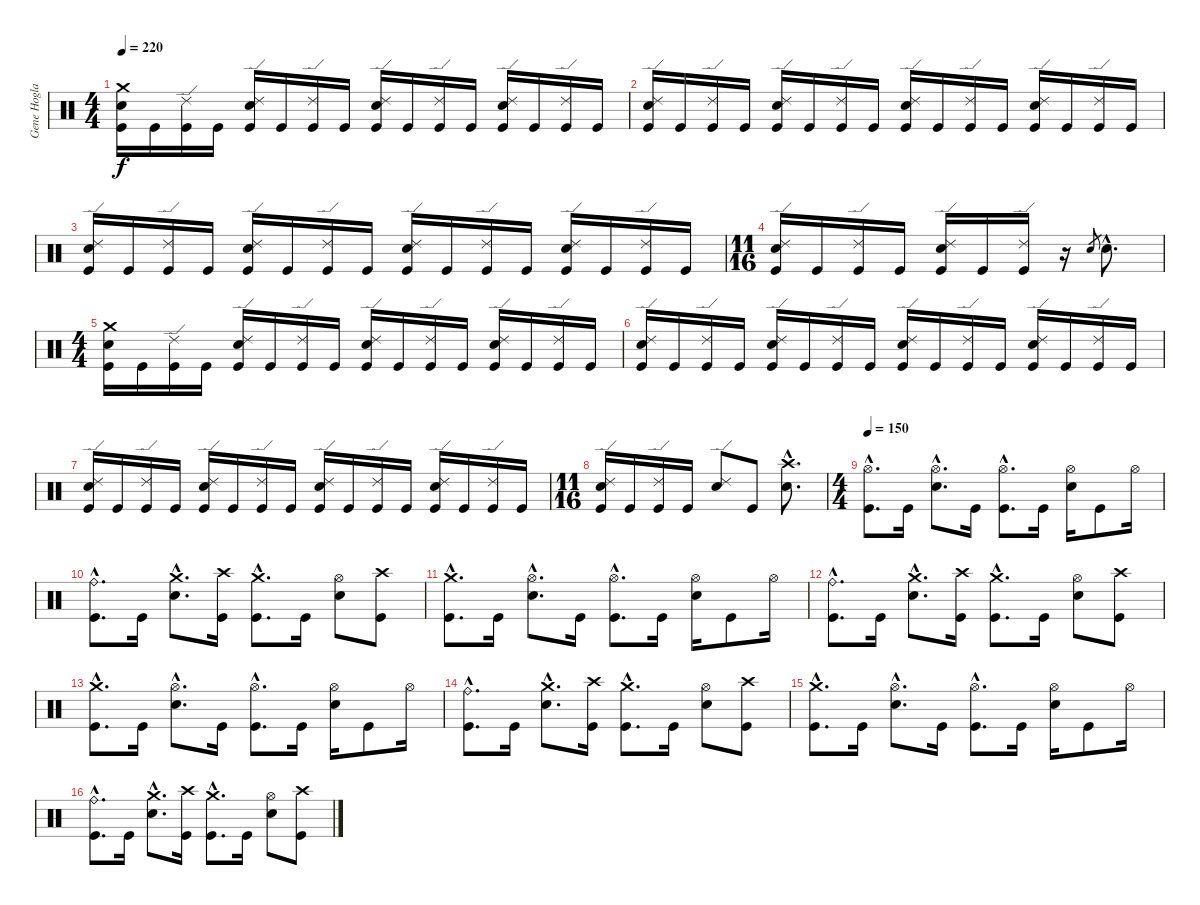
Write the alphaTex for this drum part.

\track ("Gene Hoglan" "Gene Hogla") {instrument percussion}
\staff {score}
\articulation defaults
\ts (4 4)
\tempo 220
\clef neutral
\ks c
("Crash medium (hit)" "Electric Snare (hit)" "Kick (hit)").16{dy f} "Kick (hit)".16 ("Ride (edge) 2" "Kick (hit)").16 "Kick (hit)".16 ("Ride (edge) 2" "Electric Snare (hit)" "Kick (hit)").16 "Kick (hit)".16 ("Ride (edge) 2" "Kick (hit)").16 "Kick (hit)".16 ("Ride (edge) 2" "Electric Snare (hit)" "Kick (hit)").16 "Kick (hit)".16 ("Ride (edge) 2" "Kick (hit)").16 "Kick (hit)".16 ("Ride (edge) 2" "Electric Snare (hit)" "Kick (hit)").16 "Kick (hit)".16 ("Ride (edge) 2" "Kick (hit)").16 "Kick (hit)".16 |
("Ride (edge) 2" "Electric Snare (hit)" "Kick (hit)").16 "Kick (hit)".16 ("Ride (edge) 2" "Kick (hit)").16 "Kick (hit)".16 ("Ride (edge) 2" "Electric Snare (hit)" "Kick (hit)").16 "Kick (hit)".16 ("Ride (edge) 2" "Kick (hit)").16 "Kick (hit)".16 ("Ride (edge) 2" "Electric Snare (hit)" "Kick (hit)").16 "Kick (hit)".16 ("Ride (edge) 2" "Kick (hit)").16 "Kick (hit)".16 ("Ride (edge) 2" "Electric Snare (hit)" "Kick (hit)").16 "Kick (hit)".16 ("Ride (edge) 2" "Kick (hit)").16 "Kick (hit)".16 |
("Ride (edge) 2" "Electric Snare (hit)" "Kick (hit)").16 "Kick (hit)".16 ("Ride (edge) 2" "Kick (hit)").16 "Kick (hit)".16 ("Ride (edge) 2" "Electric Snare (hit)" "Kick (hit)").16 "Kick (hit)".16 ("Ride (edge) 2" "Kick (hit)").16 "Kick (hit)".16 ("Ride (edge) 2" "Electric Snare (hit)" "Kick (hit)").16 "Kick (hit)".16 ("Ride (edge) 2" "Kick (hit)").16 "Kick (hit)".16 ("Ride (edge) 2" "Electric Snare (hit)" "Kick (hit)").16 "Kick (hit)".16 ("Ride (edge) 2" "Kick (hit)").16 "Kick (hit)".16 |
\ts (11 16)
("Ride (edge) 2" "Electric Snare (hit)" "Kick (hit)").16 "Kick (hit)".16 ("Ride (edge) 2" "Kick (hit)").16 "Kick (hit)".16 ("Ride (edge) 2" "Electric Snare (hit)" "Kick (hit)").16 "Kick (hit)".16 ("Ride (edge) 2" "Kick (hit)").16 r.16 "Electric Snare (hit)".8{gr} "Electric Snare (hit)"{hac}.8{d} |
\ts (4 4)
("Crash medium (hit)" "Electric Snare (hit)" "Kick (hit)").16 "Kick (hit)".16 ("Ride (edge) 2" "Kick (hit)").16 "Kick (hit)".16 ("Ride (edge) 2" "Electric Snare (hit)" "Kick (hit)").16 "Kick (hit)".16 ("Ride (edge) 2" "Kick (hit)").16 "Kick (hit)".16 ("Ride (edge) 2" "Electric Snare (hit)" "Kick (hit)").16 "Kick (hit)".16 ("Ride (edge) 2" "Kick (hit)").16 "Kick (hit)".16 ("Ride (edge) 2" "Electric Snare (hit)" "Kick (hit)").16 "Kick (hit)".16 ("Ride (edge) 2" "Kick (hit)").16 "Kick (hit)".16 |
("Ride (edge) 2" "Electric Snare (hit)" "Kick (hit)").16 "Kick (hit)".16 ("Ride (edge) 2" "Kick (hit)").16 "Kick (hit)".16 ("Ride (edge) 2" "Electric Snare (hit)" "Kick (hit)").16 "Kick (hit)".16 ("Ride (edge) 2" "Kick (hit)").16 "Kick (hit)".16 ("Ride (edge) 2" "Electric Snare (hit)" "Kick (hit)").16 "Kick (hit)".16 ("Ride (edge) 2" "Kick (hit)").16 "Kick (hit)".16 ("Ride (edge) 2" "Electric Snare (hit)" "Kick (hit)").16 "Kick (hit)".16 ("Ride (edge) 2" "Kick (hit)").16 "Kick (hit)".16 |
("Ride (edge) 2" "Electric Snare (hit)" "Kick (hit)").16 "Kick (hit)".16 ("Ride (edge) 2" "Kick (hit)").16 "Kick (hit)".16 ("Ride (edge) 2" "Electric Snare (hit)" "Kick (hit)").16 "Kick (hit)".16 ("Ride (edge) 2" "Kick (hit)").16 "Kick (hit)".16 ("Ride (edge) 2" "Electric Snare (hit)" "Kick (hit)").16 "Kick (hit)".16 ("Ride (edge) 2" "Kick (hit)").16 "Kick (hit)".16 ("Ride (edge) 2" "Electric Snare (hit)" "Kick (hit)").16 "Kick (hit)".16 ("Ride (edge) 2" "Kick (hit)").16 "Kick (hit)".16 |
\ts (11 16)
("Ride (edge) 2" "Electric Snare (hit)" "Kick (hit)").16 "Kick (hit)".16 ("Ride (edge) 2" "Kick (hit)").16 "Kick (hit)".16 ("Ride (edge) 2" "Electric Snare (hit)").8 "Kick (hit)".8 ("Crash high (hit)"{hac} "Electric Snare (hit)"{hac}).8{d} |
\ts (4 4)
\tempo 150
("Hi-Hat (open)"{hac} "Kick (hit)"{hac}).8{d} "Kick (hit)".16 ("Hi-Hat (open)"{hac} "Electric Snare (hit)"{hac}).8{d} "Kick (hit)".16 ("Hi-Hat (open)"{hac} "Kick (hit)"{hac}).8{d} "Kick (hit)".16 ("Hi-Hat (open)" "Electric Snare (hit)").16 "Kick (hit)".8 "Hi-Hat (open)".16 |
("Ride (bell)"{hac} "Kick (hit)"{hac}).8{d} "Kick (hit)".16 ("Crash medium (hit)"{hac} "Electric Snare (hit)"{hac}).8{d} ("Crash high (hit)" "Kick (hit)").16 ("Crash medium (hit)"{hac} "Kick (hit)"{hac}).8{d} "Kick (hit)".16 ("Hi-Hat (open)" "Electric Snare (hit)").8 ("Crash high (hit)" "Kick (hit)").8 |
("Crash medium (hit)"{hac} "Kick (hit)"{hac}).8{d} "Kick (hit)".16 ("Hi-Hat (open)"{hac} "Electric Snare (hit)"{hac}).8{d} "Kick (hit)".16 ("Hi-Hat (open)"{hac} "Kick (hit)"{hac}).8{d} "Kick (hit)".16 ("Hi-Hat (open)" "Electric Snare (hit)").16 "Kick (hit)".8 "Hi-Hat (open)".16 |
("Ride (bell)"{hac} "Kick (hit)"{hac}).8{d} "Kick (hit)".16 ("Crash medium (hit)"{hac} "Electric Snare (hit)"{hac}).8{d} ("Crash high (hit)" "Kick (hit)").16 ("Crash medium (hit)"{hac} "Kick (hit)"{hac}).8{d} "Kick (hit)".16 ("Hi-Hat (open)" "Electric Snare (hit)").8 ("Crash high (hit)" "Kick (hit)").8 |
("Crash medium (hit)"{hac} "Kick (hit)"{hac}).8{d} "Kick (hit)".16 ("Hi-Hat (open)"{hac} "Electric Snare (hit)"{hac}).8{d} "Kick (hit)".16 ("Hi-Hat (open)"{hac} "Kick (hit)"{hac}).8{d} "Kick (hit)".16 ("Hi-Hat (open)" "Electric Snare (hit)").16 "Kick (hit)".8 "Hi-Hat (open)".16 |
("Ride (bell)"{hac} "Kick (hit)"{hac}).8{d} "Kick (hit)".16 ("Crash medium (hit)"{hac} "Electric Snare (hit)"{hac}).8{d} ("Crash high (hit)" "Kick (hit)").16 ("Crash medium (hit)"{hac} "Kick (hit)"{hac}).8{d} "Kick (hit)".16 ("Hi-Hat (open)" "Electric Snare (hit)").8 ("Crash high (hit)" "Kick (hit)").8 |
("Crash medium (hit)"{hac} "Kick (hit)"{hac}).8{d} "Kick (hit)".16 ("Hi-Hat (open)"{hac} "Electric Snare (hit)"{hac}).8{d} "Kick (hit)".16 ("Hi-Hat (open)"{hac} "Kick (hit)"{hac}).8{d} "Kick (hit)".16 ("Hi-Hat (open)" "Electric Snare (hit)").16 "Kick (hit)".8 "Hi-Hat (open)".16 |
("Ride (bell)"{hac} "Kick (hit)"{hac}).8{d} "Kick (hit)".16 ("Crash medium (hit)"{hac} "Electric Snare (hit)"{hac}).8{d} ("Crash high (hit)" "Kick (hit)").16 ("Crash medium (hit)"{hac} "Kick (hit)"{hac}).8{d} "Kick (hit)".16 ("Hi-Hat (open)" "Electric Snare (hit)").8 ("Crash high (hit)" "Kick (hit)").8
